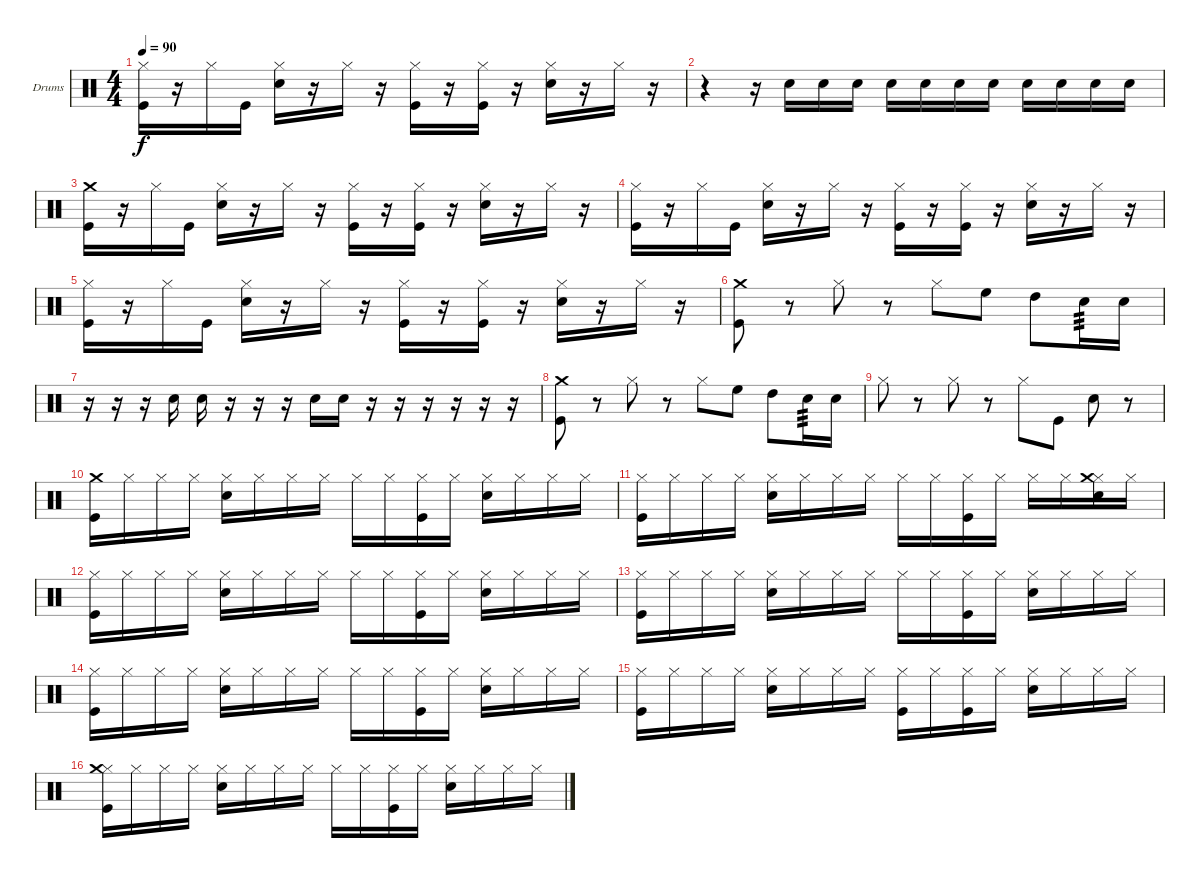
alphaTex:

\bracketExtendMode groupsimilarinstruments
\firstSystemTrackNameOrientation horizontal
\otherSystemsTrackNameOrientation horizontal
\track ("Drumkit" "Drums") {instrument percussion}
\staff {score}
\articulation defaults
\ts (4 4)
\tempo 90
\clef neutral
\ks c
("Kick (hit)" "Hi-Hat (closed)").16{dy f} r.16 "Hi-Hat (closed)".16 "Kick (hit)".16 ("Snare (hit) 2" "Hi-Hat (closed)").16 r.16 "Hi-Hat (closed)".16 r.16 ("Kick (hit)" "Hi-Hat (closed)").16 r.16 ("Kick (hit)" "Hi-Hat (closed)").16 r.16 ("Snare (hit) 2" "Hi-Hat (closed)").16 r.16 "Hi-Hat (closed)".16 r.16 |
r.4 r.16 "Snare (hit) 2".16 "Snare (hit) 2".16 "Snare (hit) 2".16 "Snare (hit) 2".16 "Snare (hit) 2".16 "Snare (hit) 2".16 "Snare (hit) 2".16 "Snare (hit) 2".16 "Snare (hit) 2".16 "Snare (hit) 2".16 "Snare (hit) 2".16 |
("Kick (hit)" "Crash medium (hit)").16 r.16 "Hi-Hat (closed)".16 "Kick (hit)".16 ("Snare (hit) 2" "Hi-Hat (closed)").16 r.16 "Hi-Hat (closed)".16 r.16 ("Kick (hit)" "Hi-Hat (closed)").16 r.16 ("Kick (hit)" "Hi-Hat (closed)").16 r.16 ("Snare (hit) 2" "Hi-Hat (closed)").16 r.16 "Hi-Hat (closed)".16 r.16 |
("Kick (hit)" "Hi-Hat (closed)").16 r.16 "Hi-Hat (closed)".16 "Kick (hit)".16 ("Snare (hit) 2" "Hi-Hat (closed)").16 r.16 "Hi-Hat (closed)".16 r.16 ("Kick (hit)" "Hi-Hat (closed)").16 r.16 ("Kick (hit)" "Hi-Hat (closed)").16 r.16 ("Snare (hit) 2" "Hi-Hat (closed)").16 r.16 "Hi-Hat (closed)".16 r.16 |
("Kick (hit)" "Hi-Hat (closed)").16 r.16 "Hi-Hat (closed)".16 "Kick (hit)".16 ("Snare (hit) 2" "Hi-Hat (closed)").16 r.16 "Hi-Hat (closed)".16 r.16 ("Kick (hit)" "Hi-Hat (closed)").16 r.16 ("Kick (hit)" "Hi-Hat (closed)").16 r.16 ("Snare (hit) 2" "Hi-Hat (closed)").16 r.16 "Hi-Hat (closed)".16 r.16 |
("Kick (hit)" "Crash medium (hit)").8 r.8 "Hi-Hat (closed)".8 r.8 "Hi-Hat (closed)".8 "High Floor Tom (hit)".8 "High Tom (hit)".8 "Snare (hit) 2".16{tp 3} "Snare (hit) 2".16 |
r.16 r.16 r.16 "Snare (hit) 2".16 "Snare (hit) 2".16 r.16 r.16 r.16 "Snare (hit) 2".16 "Snare (hit) 2".16 r.16 r.16 r.16 r.16 r.16 r.16 |
("Kick (hit)" "Crash medium (hit)").8 r.8 "Hi-Hat (closed)".8 r.8 "Hi-Hat (closed)".8 "High Floor Tom (hit)".8 "High Tom (hit)".8 "Snare (hit) 2".16{tp 3} "Snare (hit) 2".16 |
"Hi-Hat (closed)".8 r.8 "Hi-Hat (closed)".8 r.8 "Hi-Hat (closed)".8 "Kick (hit)".8 "Snare (hit) 2".8 r.8 |
("Kick (hit)" "Crash medium (hit)").16 "Hi-Hat (closed)".16 "Hi-Hat (closed)".16 "Hi-Hat (closed)".16 ("Snare (hit) 2" "Hi-Hat (closed)").16 "Hi-Hat (closed)".16 "Hi-Hat (closed)".16 "Hi-Hat (closed)".16 "Hi-Hat (closed)".16 "Hi-Hat (closed)".16 ("Kick (hit)" "Hi-Hat (closed)").16 "Hi-Hat (closed)".16 ("Snare (hit) 2" "Hi-Hat (closed)").16 "Hi-Hat (closed)".16 "Hi-Hat (closed)".16 "Hi-Hat (closed)".16 |
("Kick (hit)" "Hi-Hat (closed)").16 "Hi-Hat (closed)".16 "Hi-Hat (closed)".16 "Hi-Hat (closed)".16 ("Snare (hit) 2" "Hi-Hat (closed)").16 "Hi-Hat (closed)".16 "Hi-Hat (closed)".16 "Hi-Hat (closed)".16 "Hi-Hat (closed)".16 "Hi-Hat (closed)".16 ("Kick (hit)" "Hi-Hat (closed)").16 "Hi-Hat (closed)".16 "Hi-Hat (closed)".16 "Hi-Hat (closed)".16 ("Snare (hit) 2" "Hi-Hat (closed)" "Crash medium (hit)").16 "Hi-Hat (closed)".16 |
("Kick (hit)" "Hi-Hat (closed)").16 "Hi-Hat (closed)".16 "Hi-Hat (closed)".16 "Hi-Hat (closed)".16 ("Snare (hit) 2" "Hi-Hat (closed)").16 "Hi-Hat (closed)".16 "Hi-Hat (closed)".16 "Hi-Hat (closed)".16 "Hi-Hat (closed)".16 "Hi-Hat (closed)".16 ("Kick (hit)" "Hi-Hat (closed)").16 "Hi-Hat (closed)".16 ("Snare (hit) 2" "Hi-Hat (closed)").16 "Hi-Hat (closed)".16 "Hi-Hat (closed)".16 "Hi-Hat (closed)".16 |
("Kick (hit)" "Hi-Hat (closed)").16 "Hi-Hat (closed)".16 "Hi-Hat (closed)".16 "Hi-Hat (closed)".16 ("Snare (hit) 2" "Hi-Hat (closed)").16 "Hi-Hat (closed)".16 "Hi-Hat (closed)".16 "Hi-Hat (closed)".16 "Hi-Hat (closed)".16 "Hi-Hat (closed)".16 ("Kick (hit)" "Hi-Hat (closed)").16 "Hi-Hat (closed)".16 ("Snare (hit) 2" "Hi-Hat (closed)").16 "Hi-Hat (closed)".16 "Hi-Hat (closed)".16 "Hi-Hat (closed)".16 |
("Kick (hit)" "Hi-Hat (closed)").16 "Hi-Hat (closed)".16 "Hi-Hat (closed)".16 "Hi-Hat (closed)".16 ("Snare (hit) 2" "Hi-Hat (closed)").16 "Hi-Hat (closed)".16 "Hi-Hat (closed)".16 "Hi-Hat (closed)".16 "Hi-Hat (closed)".16 "Hi-Hat (closed)".16 ("Kick (hit)" "Hi-Hat (closed)").16 "Hi-Hat (closed)".16 ("Snare (hit) 2" "Hi-Hat (closed)").16 "Hi-Hat (closed)".16 "Hi-Hat (closed)".16 "Hi-Hat (closed)".16 |
("Kick (hit)" "Hi-Hat (closed)").16 "Hi-Hat (closed)".16 "Hi-Hat (closed)".16 "Hi-Hat (closed)".16 ("Snare (hit) 2" "Hi-Hat (closed)").16 "Hi-Hat (closed)".16 "Hi-Hat (closed)".16 "Hi-Hat (closed)".16 ("Kick (hit)" "Hi-Hat (closed)").16 "Hi-Hat (closed)".16 ("Kick (hit)" "Hi-Hat (closed)").16 "Hi-Hat (closed)".16 ("Snare (hit) 2" "Hi-Hat (closed)").16 "Hi-Hat (closed)".16 "Hi-Hat (closed)".16 "Hi-Hat (closed)".16 |
("Kick (hit)" "Hi-Hat (closed)" "Crash medium (hit)").16 "Hi-Hat (closed)".16 "Hi-Hat (closed)".16 "Hi-Hat (closed)".16 ("Snare (hit) 2" "Hi-Hat (closed)").16 "Hi-Hat (closed)".16 "Hi-Hat (closed)".16 "Hi-Hat (closed)".16 "Hi-Hat (closed)".16 "Hi-Hat (closed)".16 ("Kick (hit)" "Hi-Hat (closed)").16 "Hi-Hat (closed)".16 ("Snare (hit) 2" "Hi-Hat (closed)").16 "Hi-Hat (closed)".16 "Hi-Hat (closed)".16 "Hi-Hat (closed)".16
